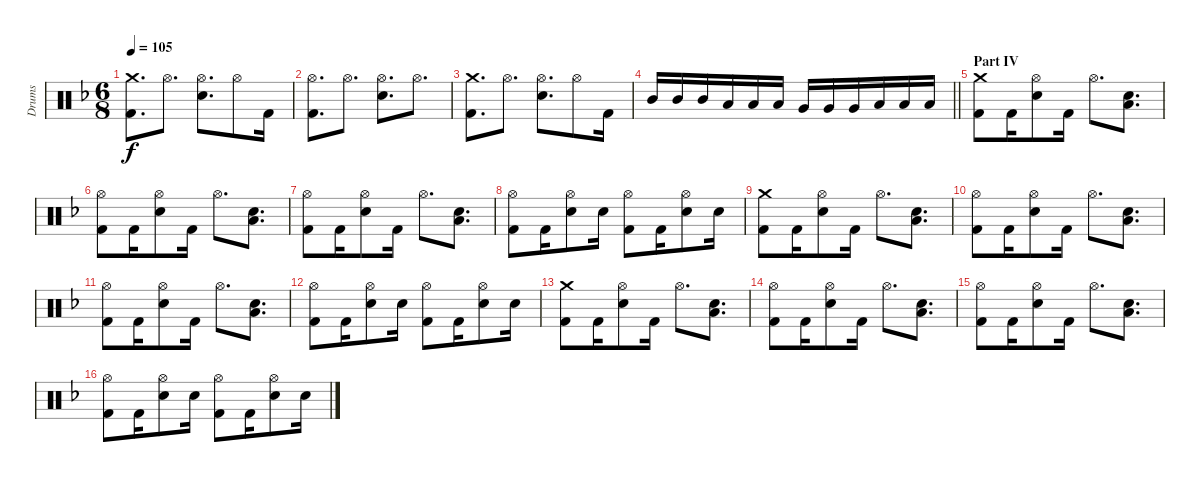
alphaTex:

\track ("Drums" "Drums") {instrument percussion}
\staff {score}
\articulation defaults
\ts (6 8)
\tempo 105
\clef neutral
\ks dminor
("Crash medium (hit)" "Kick (hit) 2").8{d dy f} "Hi-Hat (open)".8{d} ("Hi-Hat (open)" "Electric Snare (hit)").8{d} "Hi-Hat (open)".8 "Kick (hit) 2".16 |
("Hi-Hat (open)" "Kick (hit) 2").8{d} "Hi-Hat (open)".8{d} ("Hi-Hat (open)" "Electric Snare (hit)").8{d} "Hi-Hat (open)".8{d} |
("Crash medium (hit)" "Kick (hit) 2").8{d} "Hi-Hat (open)".8{d} ("Hi-Hat (open)" "Electric Snare (hit)").8{d} "Hi-Hat (open)".8 "Kick (hit) 2".16 |
\barLineRight lightlight "Mid Tom (hit)".16 "Mid Tom (hit)".16 "Mid Tom (hit)".16 "Low Tom (hit)".16 "Low Tom (hit)".16 "Low Tom (hit)".16 "Very Low Tom (hit)".16 "Very Low Tom (hit)".16 "Very Low Tom (hit)".16 "Low Floor Tom (hit)".16 "Low Floor Tom (hit)".16 "Low Floor Tom (hit)".16
|
\section ("" "Part IV")
("Kick (hit) 2" "Crash medium (hit)").8 "Kick (hit) 2".16 ("Electric Snare (hit)" "Hi-Hat (open)").8 "Kick (hit) 2".16 "Hi-Hat (open)".8{d} ("Electric Snare (hit)" "Low Floor Tom (hit)").8{d} |
("Kick (hit) 2" "Hi-Hat (open)").8 "Kick (hit) 2".16 ("Electric Snare (hit)" "Hi-Hat (open)").8 "Kick (hit) 2".16 "Hi-Hat (open)".8{d} ("Electric Snare (hit)" "Low Floor Tom (hit)").8{d} |
("Kick (hit) 2" "Hi-Hat (open)").8 "Kick (hit) 2".16 ("Electric Snare (hit)" "Hi-Hat (open)").8 "Kick (hit) 2".16 "Hi-Hat (open)".8{d} ("Electric Snare (hit)" "Low Floor Tom (hit)").8{d} |
("Kick (hit) 2" "Hi-Hat (open)").8 "Kick (hit) 2".16 ("Electric Snare (hit)" "Hi-Hat (open)").8 "Electric Snare (hit)".16 ("Kick (hit) 2" "Hi-Hat (open)").8 "Kick (hit) 2".16 ("Electric Snare (hit)" "Hi-Hat (open)").8 "Electric Snare (hit)".16 |
("Kick (hit) 2" "Crash medium (hit)").8 "Kick (hit) 2".16 ("Electric Snare (hit)" "Hi-Hat (open)").8 "Kick (hit) 2".16 "Hi-Hat (open)".8{d} ("Electric Snare (hit)" "Low Floor Tom (hit)").8{d} |
("Kick (hit) 2" "Hi-Hat (open)").8 "Kick (hit) 2".16 ("Electric Snare (hit)" "Hi-Hat (open)").8 "Kick (hit) 2".16 "Hi-Hat (open)".8{d} ("Electric Snare (hit)" "Low Floor Tom (hit)").8{d} |
("Kick (hit) 2" "Hi-Hat (open)").8 "Kick (hit) 2".16 ("Electric Snare (hit)" "Hi-Hat (open)").8 "Kick (hit) 2".16 "Hi-Hat (open)".8{d} ("Electric Snare (hit)" "Low Floor Tom (hit)").8{d} |
("Kick (hit) 2" "Hi-Hat (open)").8 "Kick (hit) 2".16 ("Electric Snare (hit)" "Hi-Hat (open)").8 "Electric Snare (hit)".16 ("Kick (hit) 2" "Hi-Hat (open)").8 "Kick (hit) 2".16 ("Electric Snare (hit)" "Hi-Hat (open)").8 "Electric Snare (hit)".16 |
("Kick (hit) 2" "Crash medium (hit)").8 "Kick (hit) 2".16 ("Electric Snare (hit)" "Hi-Hat (open)").8 "Kick (hit) 2".16 "Hi-Hat (open)".8{d} ("Electric Snare (hit)" "Low Floor Tom (hit)").8{d} |
("Kick (hit) 2" "Hi-Hat (open)").8 "Kick (hit) 2".16 ("Electric Snare (hit)" "Hi-Hat (open)").8 "Kick (hit) 2".16 "Hi-Hat (open)".8{d} ("Electric Snare (hit)" "Low Floor Tom (hit)").8{d} |
("Kick (hit) 2" "Hi-Hat (open)").8 "Kick (hit) 2".16 ("Electric Snare (hit)" "Hi-Hat (open)").8 "Kick (hit) 2".16 "Hi-Hat (open)".8{d} ("Electric Snare (hit)" "Low Floor Tom (hit)").8{d} |
("Kick (hit) 2" "Hi-Hat (open)").8 "Kick (hit) 2".16 ("Electric Snare (hit)" "Hi-Hat (open)").8 "Electric Snare (hit)".16 ("Kick (hit) 2" "Hi-Hat (open)").8 "Kick (hit) 2".16 ("Electric Snare (hit)" "Hi-Hat (open)").8 "Electric Snare (hit)".16
